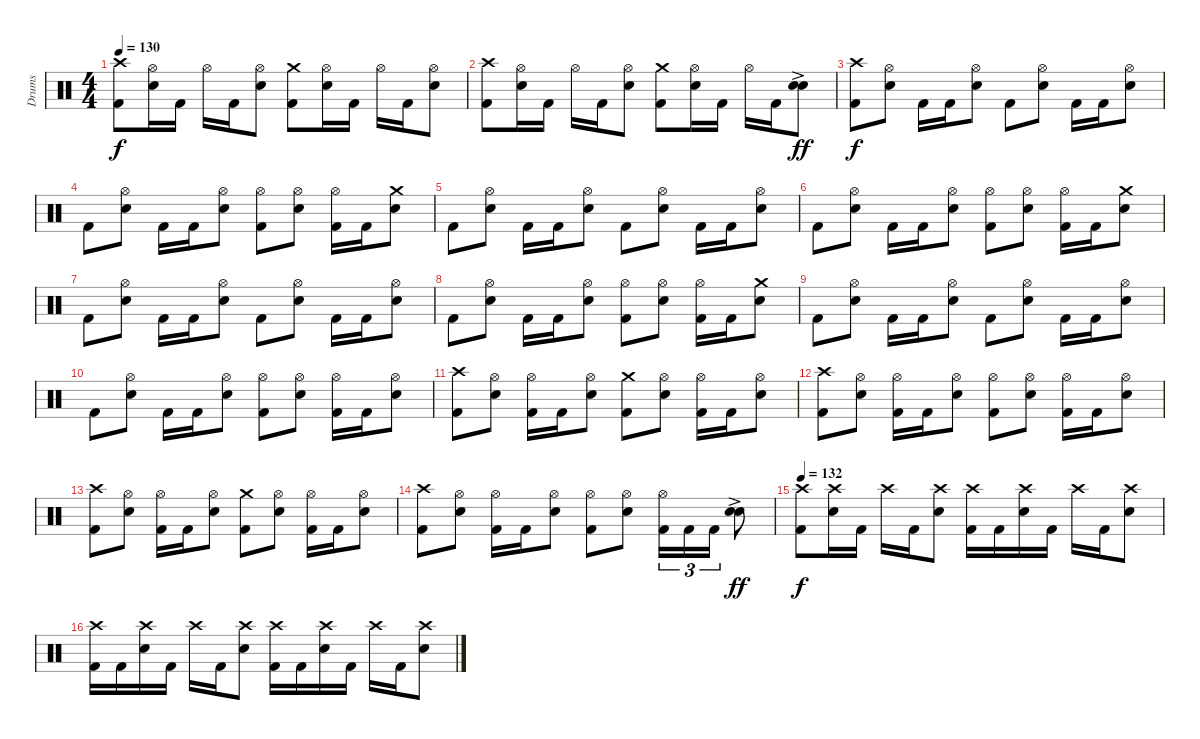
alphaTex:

\track ("Drums" "Drums") {instrument percussion}
\staff {score}
\articulation defaults
\ts (4 4)
\tempo 130
\clef neutral
\ks c
("Crash high (hit)" "Kick (hit) 2").8{dy f} ("Hi-Hat (open)" "Electric Snare (hit)").16 "Kick (hit) 2".16 "Hi-Hat (open)".16 "Kick (hit) 2".16 ("Hi-Hat (open)" "Electric Snare (hit)").8 ("Crash medium (hit)" "Kick (hit) 2").8 ("Hi-Hat (open)" "Electric Snare (hit)").16 "Kick (hit) 2".16 "Hi-Hat (open)".16 "Kick (hit) 2".16 ("Hi-Hat (open)" "Electric Snare (hit)").8 |
("Crash high (hit)" "Kick (hit) 2").8 ("Hi-Hat (open)" "Electric Snare (hit)").16 "Kick (hit) 2".16 "Hi-Hat (open)".16 "Kick (hit) 2".16 ("Hi-Hat (open)" "Electric Snare (hit)").8 ("Crash medium (hit)" "Kick (hit) 2").8 ("Hi-Hat (open)" "Electric Snare (hit)").16 "Kick (hit) 2".16 "Hi-Hat (open)".16 "Kick (hit) 2".16 ("Electric Snare (hit)"{ac} "Electric Snare (hit)"{ac}).8{bd 120 dy ff} |
("Crash high (hit)" "Kick (hit) 2").8{dy f} ("Hi-Hat (open)" "Electric Snare (hit)").8 "Kick (hit) 2".16 "Kick (hit) 2".16 ("Hi-Hat (open)" "Electric Snare (hit)").8 "Kick (hit) 2".8 ("Hi-Hat (open)" "Electric Snare (hit)").8 "Kick (hit) 2".16 "Kick (hit) 2".16 ("Hi-Hat (open)" "Electric Snare (hit)").8 |
"Kick (hit) 2".8 ("Hi-Hat (open)" "Electric Snare (hit)").8 "Kick (hit) 2".16 "Kick (hit) 2".16 ("Hi-Hat (open)" "Electric Snare (hit)").8 ("Hi-Hat (open)" "Kick (hit) 2").8 ("Hi-Hat (open)" "Electric Snare (hit)").8 ("Hi-Hat (open)" "Kick (hit) 2").16 "Kick (hit) 2".16 ("Crash medium (hit)" "Electric Snare (hit)").8 |
"Kick (hit) 2".8 ("Hi-Hat (open)" "Electric Snare (hit)").8 "Kick (hit) 2".16 "Kick (hit) 2".16 ("Hi-Hat (open)" "Electric Snare (hit)").8 "Kick (hit) 2".8 ("Hi-Hat (open)" "Electric Snare (hit)").8 "Kick (hit) 2".16 "Kick (hit) 2".16 ("Hi-Hat (open)" "Electric Snare (hit)").8 |
"Kick (hit) 2".8 ("Hi-Hat (open)" "Electric Snare (hit)").8 "Kick (hit) 2".16 "Kick (hit) 2".16 ("Hi-Hat (open)" "Electric Snare (hit)").8 ("Hi-Hat (open)" "Kick (hit) 2").8 ("Hi-Hat (open)" "Electric Snare (hit)").8 ("Hi-Hat (open)" "Kick (hit) 2").16 "Kick (hit) 2".16 ("Crash medium (hit)" "Electric Snare (hit)").8 |
"Kick (hit) 2".8 ("Hi-Hat (open)" "Electric Snare (hit)").8 "Kick (hit) 2".16 "Kick (hit) 2".16 ("Hi-Hat (open)" "Electric Snare (hit)").8 "Kick (hit) 2".8 ("Hi-Hat (open)" "Electric Snare (hit)").8 "Kick (hit) 2".16 "Kick (hit) 2".16 ("Hi-Hat (open)" "Electric Snare (hit)").8 |
"Kick (hit) 2".8 ("Hi-Hat (open)" "Electric Snare (hit)").8 "Kick (hit) 2".16 "Kick (hit) 2".16 ("Hi-Hat (open)" "Electric Snare (hit)").8 ("Hi-Hat (open)" "Kick (hit) 2").8 ("Hi-Hat (open)" "Electric Snare (hit)").8 ("Hi-Hat (open)" "Kick (hit) 2").16 "Kick (hit) 2".16 ("Crash medium (hit)" "Electric Snare (hit)").8 |
"Kick (hit) 2".8 ("Hi-Hat (open)" "Electric Snare (hit)").8 "Kick (hit) 2".16 "Kick (hit) 2".16 ("Hi-Hat (open)" "Electric Snare (hit)").8 "Kick (hit) 2".8 ("Hi-Hat (open)" "Electric Snare (hit)").8 "Kick (hit) 2".16 "Kick (hit) 2".16 ("Hi-Hat (open)" "Electric Snare (hit)").8 |
"Kick (hit) 2".8 ("Hi-Hat (open)" "Electric Snare (hit)").8 "Kick (hit) 2".16 "Kick (hit) 2".16 ("Hi-Hat (open)" "Electric Snare (hit)").8 ("Hi-Hat (open)" "Kick (hit) 2").8 ("Hi-Hat (open)" "Electric Snare (hit)").8 ("Hi-Hat (open)" "Kick (hit) 2").16 "Kick (hit) 2".16 ("Hi-Hat (open)" "Electric Snare (hit)").8 |
("Crash high (hit)" "Kick (hit) 2").8 ("Hi-Hat (open)" "Electric Snare (hit)").8 ("Hi-Hat (open)" "Kick (hit) 2").16 "Kick (hit) 2".16 ("Hi-Hat (open)" "Electric Snare (hit)").8 ("Crash medium (hit)" "Kick (hit) 2").8 ("Hi-Hat (open)" "Electric Snare (hit)").8 ("Hi-Hat (open)" "Kick (hit) 2").16 "Kick (hit) 2".16 ("Hi-Hat (open)" "Electric Snare (hit)").8 |
("Crash high (hit)" "Kick (hit) 2").8 ("Hi-Hat (open)" "Electric Snare (hit)").8 ("Hi-Hat (open)" "Kick (hit) 2").16 "Kick (hit) 2".16 ("Hi-Hat (open)" "Electric Snare (hit)").8 ("Hi-Hat (open)" "Kick (hit) 2").8 ("Hi-Hat (open)" "Electric Snare (hit)").8 ("Hi-Hat (open)" "Kick (hit) 2").16 "Kick (hit) 2".16 ("Hi-Hat (open)" "Electric Snare (hit)").8 |
("Crash high (hit)" "Kick (hit) 2").8 ("Hi-Hat (open)" "Electric Snare (hit)").8 ("Hi-Hat (open)" "Kick (hit) 2").16 "Kick (hit) 2".16 ("Hi-Hat (open)" "Electric Snare (hit)").8 ("Crash medium (hit)" "Kick (hit) 2").8 ("Hi-Hat (open)" "Electric Snare (hit)").8 ("Hi-Hat (open)" "Kick (hit) 2").16 "Kick (hit) 2".16 ("Hi-Hat (open)" "Electric Snare (hit)").8 |
("Crash high (hit)" "Kick (hit) 2").8 ("Hi-Hat (open)" "Electric Snare (hit)").8 ("Hi-Hat (open)" "Kick (hit) 2").16 "Kick (hit) 2".16 ("Hi-Hat (open)" "Electric Snare (hit)").8 ("Hi-Hat (open)" "Kick (hit) 2").8 ("Hi-Hat (open)" "Electric Snare (hit)").8 ("Hi-Hat (open)" "Kick (hit) 2").16{tu (3 2)} "Kick (hit) 2".16{tu (3 2)} "Kick (hit) 2".16{tu (3 2)} ("Electric Snare (hit)"{ac} "Electric Snare (hit)"{ac}).8{bd 120 dy ff} |
\tempo 132
("Crash high (hit)" "Kick (hit) 2").8{dy f} ("Crash high (hit)" "Electric Snare (hit)").16 "Kick (hit) 2".16 "Crash high (hit)".16 "Kick (hit) 2".16 ("Crash high (hit)" "Electric Snare (hit)").8 ("Crash high (hit)" "Kick (hit) 2").16 "Kick (hit) 2".16 ("Crash high (hit)" "Electric Snare (hit)").16 "Kick (hit) 2".16 "Crash high (hit)".16 "Kick (hit) 2".16 ("Crash high (hit)" "Electric Snare (hit)").8 |
("Crash high (hit)" "Kick (hit) 2").16 "Kick (hit) 2".16 ("Crash high (hit)" "Electric Snare (hit)").16 "Kick (hit) 2".16 "Crash high (hit)".16 "Kick (hit) 2".16 ("Crash high (hit)" "Electric Snare (hit)").8 ("Crash high (hit)" "Kick (hit) 2").16 "Kick (hit) 2".16 ("Crash high (hit)" "Electric Snare (hit)").16 "Kick (hit) 2".16 "Crash high (hit)".16 "Kick (hit) 2".16 ("Crash high (hit)" "Electric Snare (hit)").8
